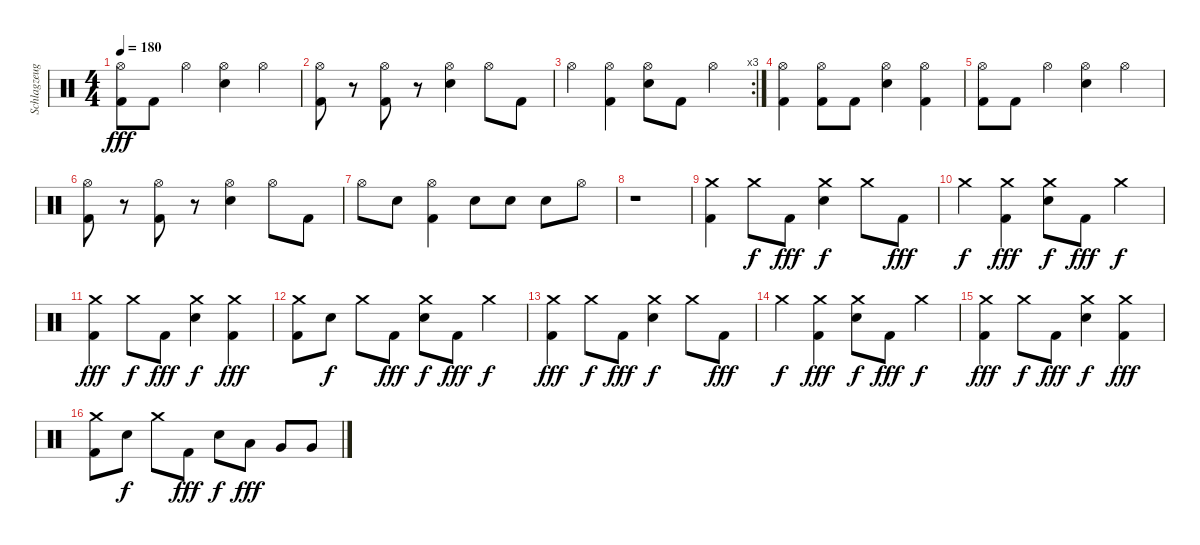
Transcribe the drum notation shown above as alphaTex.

\track ("Schlagzeug" "Schlagzeug") {instrument percussion}
\staff {score}
\articulation defaults
\ts (4 4)
\tempo 180
\clef neutral
\ks c
("Hi-Hat (open)" "Kick (hit) 2").8{dy fff} "Kick (hit) 2".8 "Hi-Hat (open)".4 ("Hi-Hat (open)" "Electric Snare (hit)").4 "Hi-Hat (open)".4 |
("Hi-Hat (open)" "Kick (hit) 2").8 r.8 ("Hi-Hat (open)" "Kick (hit) 2").8 r.8 ("Hi-Hat (open)" "Electric Snare (hit)").4 "Hi-Hat (open)".8 "Kick (hit) 2".8 |
\rc 3 "Hi-Hat (open)".4
("Hi-Hat (open)" "Kick (hit) 2").4 ("Hi-Hat (open)" "Electric Snare (hit)").8 "Kick (hit) 2".8 "Hi-Hat (open)".4 |
("Hi-Hat (open)" "Kick (hit) 2").4 ("Hi-Hat (open)" "Kick (hit) 2").8 "Kick (hit) 2".8 ("Hi-Hat (open)" "Electric Snare (hit)").4 ("Hi-Hat (open)" "Kick (hit) 2").4 |
("Hi-Hat (open)" "Kick (hit) 2").8 "Kick (hit) 2".8 "Hi-Hat (open)".4 ("Hi-Hat (open)" "Electric Snare (hit)").4 "Hi-Hat (open)".4 |
("Hi-Hat (open)" "Kick (hit) 2").8 r.8 ("Hi-Hat (open)" "Kick (hit) 2").8 r.8 ("Hi-Hat (open)" "Electric Snare (hit)").4 "Hi-Hat (open)".8 "Kick (hit) 2".8 |
"Hi-Hat (open)".8 "Electric Snare (hit)".8 ("Hi-Hat (open)" "Kick (hit) 2").4 "Electric Snare (hit)".8 "Electric Snare (hit)".8 "Electric Snare (hit)".8 "Hi-Hat (open)".8 |
r.1 |
("Crash medium (hit)" "Kick (hit) 2").4 "Crash medium (hit)".8{dy f} "Kick (hit) 2".8{dy fff} ("Crash medium (hit)" "Electric Snare (hit)").4{dy f} "Crash medium (hit)".8 "Kick (hit) 2".8{dy fff} |
"Crash medium (hit)".4{dy f} ("Crash medium (hit)" "Kick (hit) 2").4{dy fff} ("Crash medium (hit)" "Electric Snare (hit)").8{dy f} "Kick (hit) 2".8{dy fff} "Crash medium (hit)".4{dy f} |
("Crash medium (hit)" "Kick (hit) 2").4{dy fff} "Crash medium (hit)".8{dy f} "Kick (hit) 2".8{dy fff} ("Crash medium (hit)" "Electric Snare (hit)").4{dy f} ("Crash medium (hit)" "Kick (hit) 2").4{dy fff} |
("Crash medium (hit)" "Kick (hit) 2").8 "Electric Snare (hit)".8{dy f} "Crash medium (hit)".8 "Kick (hit) 2".8{dy fff} ("Crash medium (hit)" "Electric Snare (hit)").8{dy f} "Kick (hit) 2".8{dy fff} "Crash medium (hit)".4{dy f} |
("Crash medium (hit)" "Kick (hit) 2").4{dy fff} "Crash medium (hit)".8{dy f} "Kick (hit) 2".8{dy fff} ("Crash medium (hit)" "Electric Snare (hit)").4{dy f} "Crash medium (hit)".8 "Kick (hit) 2".8{dy fff} |
"Crash medium (hit)".4{dy f} ("Crash medium (hit)" "Kick (hit) 2").4{dy fff} ("Crash medium (hit)" "Electric Snare (hit)").8{dy f} "Kick (hit) 2".8{dy fff} "Crash medium (hit)".4{dy f} |
("Crash medium (hit)" "Kick (hit) 2").4{dy fff} "Crash medium (hit)".8{dy f} "Kick (hit) 2".8{dy fff} ("Crash medium (hit)" "Electric Snare (hit)").4{dy f} ("Crash medium (hit)" "Kick (hit) 2").4{dy fff} |
("Crash medium (hit)" "Kick (hit) 2").8 "Electric Snare (hit)".8{dy f} "Crash medium (hit)".8 "Kick (hit) 2".8{dy fff} "Electric Snare (hit)".8{dy f} "Low Tom (hit)".8{dy fff} "Very Low Tom (hit)".8 "Very Low Tom (hit)".8
